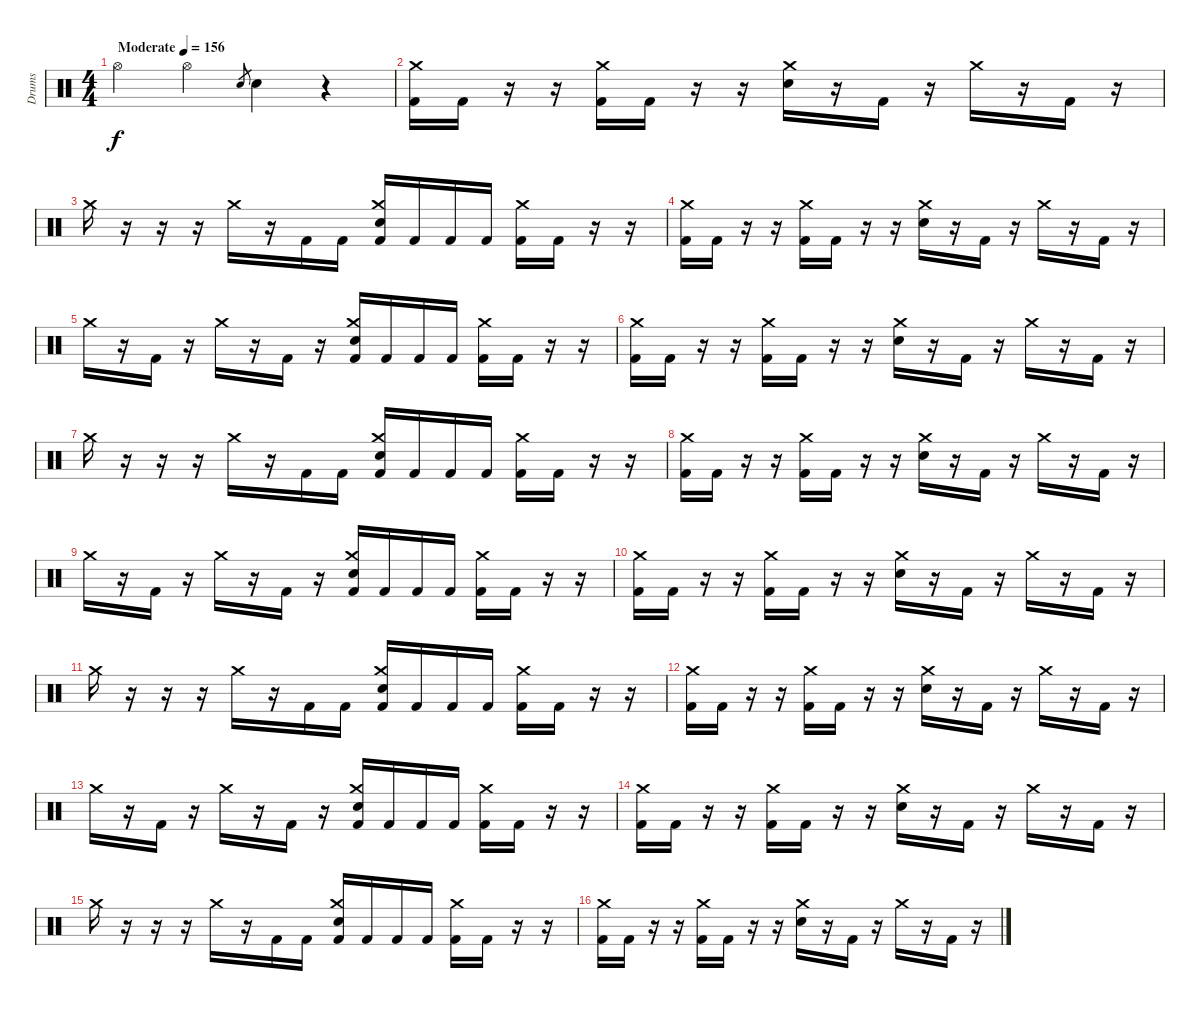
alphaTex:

\track ("Drums" "Drums") {instrument percussion}
\staff {score}
\articulation defaults
\ts (4 4)
\tempo (156 "Moderate")
\clef neutral
\ks c "Hi-Hat (open)".4{dy f} "Hi-Hat (open)".4 "Electric Snare (hit)".8{gr} "Electric Snare (hit)".4
r.4 |
("Crash medium (hit)" "Kick (hit) 2").16 "Kick (hit) 2".16 r.16 r.16 ("Crash medium (hit)" "Kick (hit) 2").16 "Kick (hit) 2".16 r.16 r.16 ("Crash medium (hit)" "Electric Snare (hit)").16 r.16 "Kick (hit) 2".16 r.16 "Crash medium (hit)".16 r.16 "Kick (hit) 2".16 r.16 |
"Crash medium (hit)".16 r.16 r.16 r.16 "Crash medium (hit)".16 r.16 "Kick (hit) 2".16 "Kick (hit) 2".16 ("Crash medium (hit)" "Electric Snare (hit)" "Kick (hit) 2").16 "Kick (hit) 2".16 "Kick (hit) 2".16 "Kick (hit) 2".16 ("Crash medium (hit)" "Kick (hit) 2").16 "Kick (hit) 2".16 r.16 r.16 |
("Crash medium (hit)" "Kick (hit) 2").16 "Kick (hit) 2".16 r.16 r.16 ("Crash medium (hit)" "Kick (hit) 2").16 "Kick (hit) 2".16 r.16 r.16 ("Crash medium (hit)" "Electric Snare (hit)").16 r.16 "Kick (hit) 2".16 r.16 "Crash medium (hit)".16 r.16 "Kick (hit) 2".16 r.16 |
"Crash medium (hit)".16 r.16 "Kick (hit) 2".16 r.16 "Crash medium (hit)".16 r.16 "Kick (hit) 2".16 r.16 ("Crash medium (hit)" "Electric Snare (hit)" "Kick (hit) 2").16 "Kick (hit) 2".16 "Kick (hit) 2".16 "Kick (hit) 2".16 ("Crash medium (hit)" "Kick (hit) 2").16 "Kick (hit) 2".16 r.16 r.16 |
("Crash medium (hit)" "Kick (hit) 2").16 "Kick (hit) 2".16 r.16 r.16 ("Crash medium (hit)" "Kick (hit) 2").16 "Kick (hit) 2".16 r.16 r.16 ("Crash medium (hit)" "Electric Snare (hit)").16 r.16 "Kick (hit) 2".16 r.16 "Crash medium (hit)".16 r.16 "Kick (hit) 2".16 r.16 |
"Crash medium (hit)".16 r.16 r.16 r.16 "Crash medium (hit)".16 r.16 "Kick (hit) 2".16 "Kick (hit) 2".16 ("Crash medium (hit)" "Electric Snare (hit)" "Kick (hit) 2").16 "Kick (hit) 2".16 "Kick (hit) 2".16 "Kick (hit) 2".16 ("Crash medium (hit)" "Kick (hit) 2").16 "Kick (hit) 2".16 r.16 r.16 |
("Crash medium (hit)" "Kick (hit) 2").16 "Kick (hit) 2".16 r.16 r.16 ("Crash medium (hit)" "Kick (hit) 2").16 "Kick (hit) 2".16 r.16 r.16 ("Crash medium (hit)" "Electric Snare (hit)").16 r.16 "Kick (hit) 2".16 r.16 "Crash medium (hit)".16 r.16 "Kick (hit) 2".16 r.16 |
"Crash medium (hit)".16 r.16 "Kick (hit) 2".16 r.16 "Crash medium (hit)".16 r.16 "Kick (hit) 2".16 r.16 ("Crash medium (hit)" "Electric Snare (hit)" "Kick (hit) 2").16 "Kick (hit) 2".16 "Kick (hit) 2".16 "Kick (hit) 2".16 ("Crash medium (hit)" "Kick (hit) 2").16 "Kick (hit) 2".16 r.16 r.16 |
("Crash medium (hit)" "Kick (hit) 2").16 "Kick (hit) 2".16 r.16 r.16 ("Crash medium (hit)" "Kick (hit) 2").16 "Kick (hit) 2".16 r.16 r.16 ("Crash medium (hit)" "Electric Snare (hit)").16 r.16 "Kick (hit) 2".16 r.16 "Crash medium (hit)".16 r.16 "Kick (hit) 2".16 r.16 |
"Crash medium (hit)".16 r.16 r.16 r.16 "Crash medium (hit)".16 r.16 "Kick (hit) 2".16 "Kick (hit) 2".16 ("Crash medium (hit)" "Electric Snare (hit)" "Kick (hit) 2").16 "Kick (hit) 2".16 "Kick (hit) 2".16 "Kick (hit) 2".16 ("Crash medium (hit)" "Kick (hit) 2").16 "Kick (hit) 2".16 r.16 r.16 |
("Crash medium (hit)" "Kick (hit) 2").16 "Kick (hit) 2".16 r.16 r.16 ("Crash medium (hit)" "Kick (hit) 2").16 "Kick (hit) 2".16 r.16 r.16 ("Crash medium (hit)" "Electric Snare (hit)").16 r.16 "Kick (hit) 2".16 r.16 "Crash medium (hit)".16 r.16 "Kick (hit) 2".16 r.16 |
"Crash medium (hit)".16 r.16 "Kick (hit) 2".16 r.16 "Crash medium (hit)".16 r.16 "Kick (hit) 2".16 r.16 ("Crash medium (hit)" "Electric Snare (hit)" "Kick (hit) 2").16 "Kick (hit) 2".16 "Kick (hit) 2".16 "Kick (hit) 2".16 ("Crash medium (hit)" "Kick (hit) 2").16 "Kick (hit) 2".16 r.16 r.16 |
("Crash medium (hit)" "Kick (hit) 2").16 "Kick (hit) 2".16 r.16 r.16 ("Crash medium (hit)" "Kick (hit) 2").16 "Kick (hit) 2".16 r.16 r.16 ("Crash medium (hit)" "Electric Snare (hit)").16 r.16 "Kick (hit) 2".16 r.16 "Crash medium (hit)".16 r.16 "Kick (hit) 2".16 r.16 |
"Crash medium (hit)".16 r.16 r.16 r.16 "Crash medium (hit)".16 r.16 "Kick (hit) 2".16 "Kick (hit) 2".16 ("Crash medium (hit)" "Electric Snare (hit)" "Kick (hit) 2").16 "Kick (hit) 2".16 "Kick (hit) 2".16 "Kick (hit) 2".16 ("Crash medium (hit)" "Kick (hit) 2").16 "Kick (hit) 2".16 r.16 r.16 |
("Crash medium (hit)" "Kick (hit) 2").16 "Kick (hit) 2".16 r.16 r.16 ("Crash medium (hit)" "Kick (hit) 2").16 "Kick (hit) 2".16 r.16 r.16 ("Crash medium (hit)" "Electric Snare (hit)").16 r.16 "Kick (hit) 2".16 r.16 "Crash medium (hit)".16 r.16 "Kick (hit) 2".16 r.16
